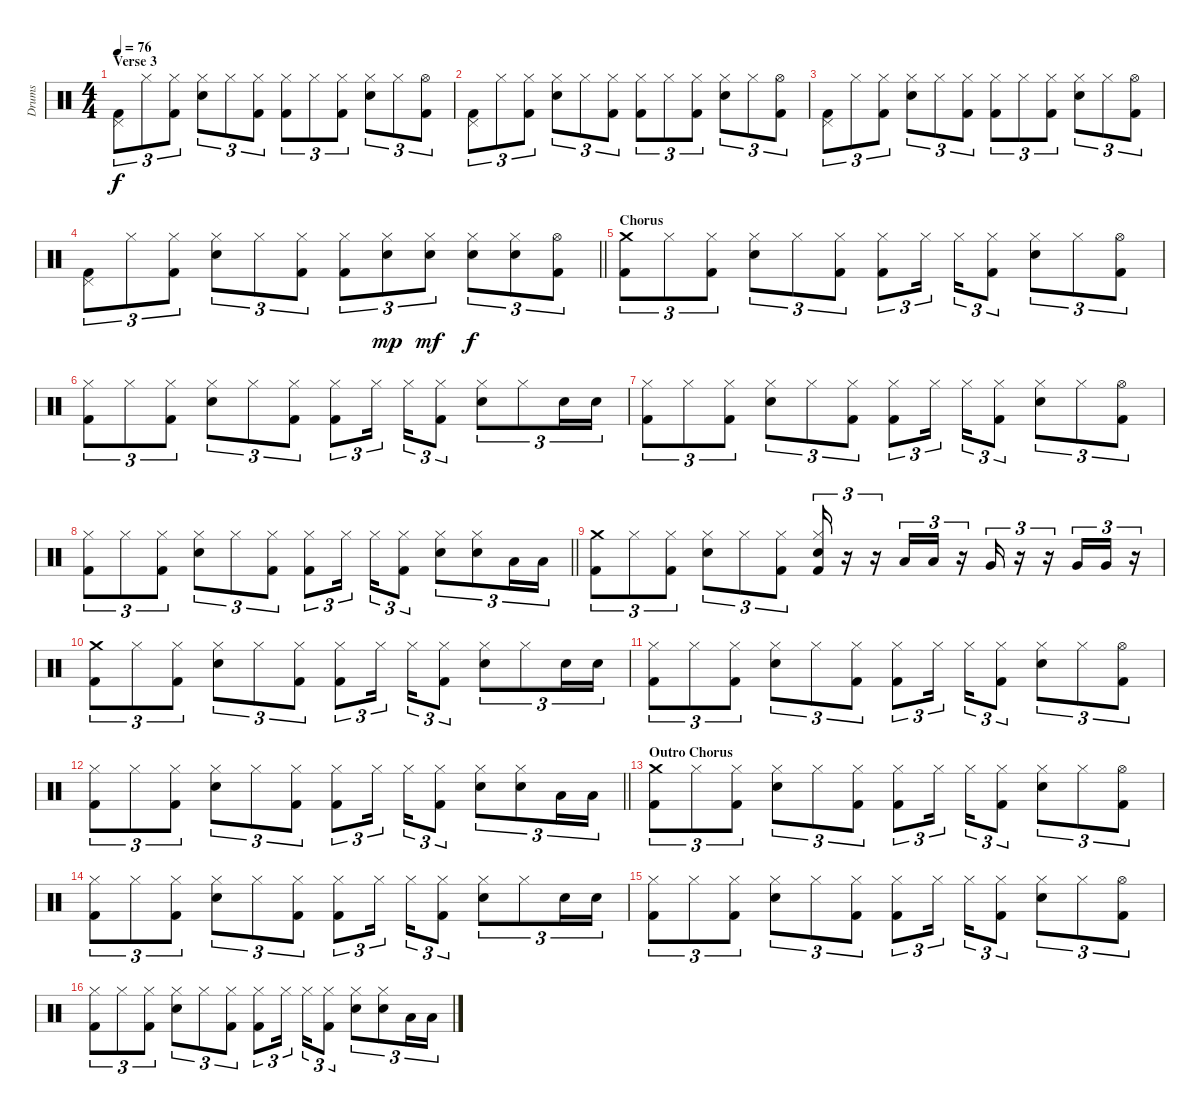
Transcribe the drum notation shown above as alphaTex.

\track ("Drums" "Drums") {instrument percussion}
\staff {score}
\articulation defaults
\ts (4 4)
\section ("" "Verse 3")
\tempo 76
\clef neutral
\ks c
("Pedal Hi-Hat (hit)" "Kick (hit) 2").8{tu (3 2) dy f} "Hi-Hat (closed)".8{tu (3 2)} ("Hi-Hat (closed)" "Kick (hit) 2").8{tu (3 2)} ("Hi-Hat (closed)" "Snare (hit) 2").8{tu (3 2)} "Hi-Hat (closed)".8{tu (3 2)} ("Hi-Hat (closed)" "Kick (hit) 2").8{tu (3 2)} ("Hi-Hat (closed)" "Kick (hit) 2").8{tu (3 2)} "Hi-Hat (closed)".8{tu (3 2)} ("Hi-Hat (closed)" "Kick (hit) 2").8{tu (3 2)} ("Hi-Hat (closed)" "Snare (hit) 2").8{tu (3 2)} "Hi-Hat (closed)".8{tu (3 2)} ("Hi-Hat (open)" "Kick (hit) 2").8{tu (3 2)} |
("Pedal Hi-Hat (hit)" "Kick (hit) 2").8{tu (3 2)} "Hi-Hat (closed)".8{tu (3 2)} ("Hi-Hat (closed)" "Kick (hit) 2").8{tu (3 2)} ("Hi-Hat (closed)" "Snare (hit) 2").8{tu (3 2)} "Hi-Hat (closed)".8{tu (3 2)} ("Hi-Hat (closed)" "Kick (hit) 2").8{tu (3 2)} ("Hi-Hat (closed)" "Kick (hit) 2").8{tu (3 2)} "Hi-Hat (closed)".8{tu (3 2)} ("Hi-Hat (closed)" "Kick (hit) 2").8{tu (3 2)} ("Hi-Hat (closed)" "Snare (hit) 2").8{tu (3 2)} "Hi-Hat (closed)".8{tu (3 2)} ("Hi-Hat (open)" "Kick (hit) 2").8{tu (3 2)} |
("Pedal Hi-Hat (hit)" "Kick (hit) 2").8{tu (3 2)} "Hi-Hat (closed)".8{tu (3 2)} ("Hi-Hat (closed)" "Kick (hit) 2").8{tu (3 2)} ("Hi-Hat (closed)" "Snare (hit) 2").8{tu (3 2)} "Hi-Hat (closed)".8{tu (3 2)} ("Hi-Hat (closed)" "Kick (hit) 2").8{tu (3 2)} ("Hi-Hat (closed)" "Kick (hit) 2").8{tu (3 2)} "Hi-Hat (closed)".8{tu (3 2)} ("Hi-Hat (closed)" "Kick (hit) 2").8{tu (3 2)} ("Hi-Hat (closed)" "Snare (hit) 2").8{tu (3 2)} "Hi-Hat (closed)".8{tu (3 2)} ("Hi-Hat (open)" "Kick (hit) 2").8{tu (3 2)} |
\barLineRight lightlight
("Pedal Hi-Hat (hit)" "Kick (hit) 2").8{tu (3 2)} "Hi-Hat (closed)".8{tu (3 2)} ("Hi-Hat (closed)" "Kick (hit) 2").8{tu (3 2)} ("Hi-Hat (closed)" "Snare (hit) 2").8{tu (3 2)} "Hi-Hat (closed)".8{tu (3 2)} ("Hi-Hat (closed)" "Kick (hit) 2").8{tu (3 2)} ("Hi-Hat (closed)" "Kick (hit) 2").8{tu (3 2)} ("Hi-Hat (closed)" "Snare (hit) 2").8{tu (3 2) dy mp} ("Hi-Hat (closed)" "Snare (hit) 2").8{tu (3 2) dy mf} ("Hi-Hat (closed)" "Snare (hit) 2").8{tu (3 2) dy f} ("Hi-Hat (closed)" "Snare (hit) 2").8{tu (3 2)} ("Hi-Hat (open)" "Kick (hit) 2").8{tu (3 2)} |
\section ("" "Chorus")
("Crash medium (hit)" "Kick (hit) 2").8{tu (3 2)} "Hi-Hat (closed)".8{tu (3 2)} ("Hi-Hat (closed)" "Kick (hit) 2").8{tu (3 2)} ("Hi-Hat (closed)" "Snare (hit) 2").8{tu (3 2)} "Hi-Hat (closed)".8{tu (3 2)} ("Hi-Hat (closed)" "Kick (hit) 2").8{tu (3 2)} ("Hi-Hat (closed)" "Kick (hit) 2").8{tu (3 2)} "Hi-Hat (closed)".16{tu (3 2) beam splitsecondary} "Hi-Hat (closed)".16{tu (3 2)} ("Hi-Hat (closed)" "Kick (hit) 2").8{tu (3 2)} ("Hi-Hat (closed)" "Snare (hit) 2").8{tu (3 2)} "Hi-Hat (closed)".8{tu (3 2)} ("Hi-Hat (open)" "Kick (hit) 2").8{tu (3 2)} |
("Hi-Hat (closed)" "Kick (hit) 2").8{tu (3 2)} "Hi-Hat (closed)".8{tu (3 2)} ("Hi-Hat (closed)" "Kick (hit) 2").8{tu (3 2)} ("Hi-Hat (closed)" "Snare (hit) 2").8{tu (3 2)} "Hi-Hat (closed)".8{tu (3 2)} ("Hi-Hat (closed)" "Kick (hit) 2").8{tu (3 2)} ("Hi-Hat (closed)" "Kick (hit) 2").8{tu (3 2)} "Hi-Hat (closed)".16{tu (3 2) beam splitsecondary} "Hi-Hat (closed)".16{tu (3 2)} ("Hi-Hat (closed)" "Kick (hit) 2").8{tu (3 2)} ("Hi-Hat (closed)" "Snare (hit) 2").8{tu (3 2)} "Hi-Hat (closed)".8{tu (3 2)} "Snare (hit) 2".16{tu (3 2)} "Snare (hit) 2".16{tu (3 2)} |
("Hi-Hat (closed)" "Kick (hit) 2").8{tu (3 2)} "Hi-Hat (closed)".8{tu (3 2)} ("Hi-Hat (closed)" "Kick (hit) 2").8{tu (3 2)} ("Hi-Hat (closed)" "Snare (hit) 2").8{tu (3 2)} "Hi-Hat (closed)".8{tu (3 2)} ("Hi-Hat (closed)" "Kick (hit) 2").8{tu (3 2)} ("Hi-Hat (closed)" "Kick (hit) 2").8{tu (3 2)} "Hi-Hat (closed)".16{tu (3 2) beam splitsecondary} "Hi-Hat (closed)".16{tu (3 2)} ("Hi-Hat (closed)" "Kick (hit) 2").8{tu (3 2)} ("Hi-Hat (closed)" "Snare (hit) 2").8{tu (3 2)} "Hi-Hat (closed)".8{tu (3 2)} ("Hi-Hat (open)" "Kick (hit) 2").8{tu (3 2)} |
\barLineRight lightlight
("Hi-Hat (closed)" "Kick (hit) 2").8{tu (3 2)} "Hi-Hat (closed)".8{tu (3 2)} ("Hi-Hat (closed)" "Kick (hit) 2").8{tu (3 2)} ("Hi-Hat (closed)" "Snare (hit) 2").8{tu (3 2)} "Hi-Hat (closed)".8{tu (3 2)} ("Hi-Hat (closed)" "Kick (hit) 2").8{tu (3 2)} ("Hi-Hat (closed)" "Kick (hit) 2").8{tu (3 2)} "Hi-Hat (closed)".16{tu (3 2) beam splitsecondary} "Hi-Hat (closed)".16{tu (3 2)} ("Hi-Hat (closed)" "Kick (hit) 2").8{tu (3 2)} ("Hi-Hat (closed)" "Snare (hit) 2").8{tu (3 2)} ("Hi-Hat (closed)" "Snare (hit) 2").8{tu (3 2)} "Low Tom (hit)".16{tu (3 2)} "Low Tom (hit)".16{tu (3 2)} |
("Crash medium (hit)" "Kick (hit) 2").8{tu (3 2)} "Hi-Hat (closed)".8{tu (3 2)} ("Hi-Hat (closed)" "Kick (hit) 2").8{tu (3 2)} ("Hi-Hat (closed)" "Snare (hit) 2").8{tu (3 2)} "Hi-Hat (closed)".8{tu (3 2)} ("Hi-Hat (closed)" "Kick (hit) 2").8{tu (3 2)} ("Hi-Hat (closed)" "Snare (hit) 2" "Kick (hit) 2").16{tu (3 2)} r.16{tu (3 2)} r.16{tu (3 2)} "Low Tom (hit)".16{tu (3 2)} "Low Tom (hit)".16{tu (3 2)} r.16{tu (3 2)} "Very Low Tom (hit)".16{tu (3 2)} r.16{tu (3 2)} r.16{tu (3 2)} "Very Low Tom (hit)".16{tu (3 2)} "Very Low Tom (hit)".16{tu (3 2)} r.16{tu (3 2)} |
("Crash medium (hit)" "Kick (hit) 2").8{tu (3 2)} "Hi-Hat (closed)".8{tu (3 2)} ("Hi-Hat (closed)" "Kick (hit) 2").8{tu (3 2)} ("Hi-Hat (closed)" "Snare (hit) 2").8{tu (3 2)} "Hi-Hat (closed)".8{tu (3 2)} ("Hi-Hat (closed)" "Kick (hit) 2").8{tu (3 2)} ("Hi-Hat (closed)" "Kick (hit) 2").8{tu (3 2)} "Hi-Hat (closed)".16{tu (3 2) beam splitsecondary} "Hi-Hat (closed)".16{tu (3 2)} ("Hi-Hat (closed)" "Kick (hit) 2").8{tu (3 2)} ("Hi-Hat (closed)" "Snare (hit) 2").8{tu (3 2)} "Hi-Hat (closed)".8{tu (3 2)} "Snare (hit) 2".16{tu (3 2)} "Snare (hit) 2".16{tu (3 2)} |
("Hi-Hat (closed)" "Kick (hit) 2").8{tu (3 2)} "Hi-Hat (closed)".8{tu (3 2)} ("Hi-Hat (closed)" "Kick (hit) 2").8{tu (3 2)} ("Hi-Hat (closed)" "Snare (hit) 2").8{tu (3 2)} "Hi-Hat (closed)".8{tu (3 2)} ("Hi-Hat (closed)" "Kick (hit) 2").8{tu (3 2)} ("Hi-Hat (closed)" "Kick (hit) 2").8{tu (3 2)} "Hi-Hat (closed)".16{tu (3 2) beam splitsecondary} "Hi-Hat (closed)".16{tu (3 2)} ("Hi-Hat (closed)" "Kick (hit) 2").8{tu (3 2)} ("Hi-Hat (closed)" "Snare (hit) 2").8{tu (3 2)} "Hi-Hat (closed)".8{tu (3 2)} ("Hi-Hat (open)" "Kick (hit) 2").8{tu (3 2)} |
\barLineRight lightlight
("Hi-Hat (closed)" "Kick (hit) 2").8{tu (3 2)} "Hi-Hat (closed)".8{tu (3 2)} ("Hi-Hat (closed)" "Kick (hit) 2").8{tu (3 2)} ("Hi-Hat (closed)" "Snare (hit) 2").8{tu (3 2)} "Hi-Hat (closed)".8{tu (3 2)} ("Hi-Hat (closed)" "Kick (hit) 2").8{tu (3 2)} ("Hi-Hat (closed)" "Kick (hit) 2").8{tu (3 2)} "Hi-Hat (closed)".16{tu (3 2) beam splitsecondary} "Hi-Hat (closed)".16{tu (3 2)} ("Hi-Hat (closed)" "Kick (hit) 2").8{tu (3 2)} ("Hi-Hat (closed)" "Snare (hit) 2").8{tu (3 2)} ("Hi-Hat (closed)" "Snare (hit) 2").8{tu (3 2)} "Low Tom (hit)".16{tu (3 2)} "Low Tom (hit)".16{tu (3 2)} |
\section ("" "Outro Chorus")
("Crash medium (hit)" "Kick (hit) 2").8{tu (3 2)} "Hi-Hat (closed)".8{tu (3 2)} ("Hi-Hat (closed)" "Kick (hit) 2").8{tu (3 2)} ("Hi-Hat (closed)" "Snare (hit) 2").8{tu (3 2)} "Hi-Hat (closed)".8{tu (3 2)} ("Hi-Hat (closed)" "Kick (hit) 2").8{tu (3 2)} ("Hi-Hat (closed)" "Kick (hit) 2").8{tu (3 2)} "Hi-Hat (closed)".16{tu (3 2) beam splitsecondary} "Hi-Hat (closed)".16{tu (3 2)} ("Hi-Hat (closed)" "Kick (hit) 2").8{tu (3 2)} ("Hi-Hat (closed)" "Snare (hit) 2").8{tu (3 2)} "Hi-Hat (closed)".8{tu (3 2)} ("Hi-Hat (open)" "Kick (hit) 2").8{tu (3 2)} |
("Hi-Hat (closed)" "Kick (hit) 2").8{tu (3 2)} "Hi-Hat (closed)".8{tu (3 2)} ("Hi-Hat (closed)" "Kick (hit) 2").8{tu (3 2)} ("Hi-Hat (closed)" "Snare (hit) 2").8{tu (3 2)} "Hi-Hat (closed)".8{tu (3 2)} ("Hi-Hat (closed)" "Kick (hit) 2").8{tu (3 2)} ("Hi-Hat (closed)" "Kick (hit) 2").8{tu (3 2)} "Hi-Hat (closed)".16{tu (3 2) beam splitsecondary} "Hi-Hat (closed)".16{tu (3 2)} ("Hi-Hat (closed)" "Kick (hit) 2").8{tu (3 2)} ("Hi-Hat (closed)" "Snare (hit) 2").8{tu (3 2)} "Hi-Hat (closed)".8{tu (3 2)} "Snare (hit) 2".16{tu (3 2)} "Snare (hit) 2".16{tu (3 2)} |
("Hi-Hat (closed)" "Kick (hit) 2").8{tu (3 2)} "Hi-Hat (closed)".8{tu (3 2)} ("Hi-Hat (closed)" "Kick (hit) 2").8{tu (3 2)} ("Hi-Hat (closed)" "Snare (hit) 2").8{tu (3 2)} "Hi-Hat (closed)".8{tu (3 2)} ("Hi-Hat (closed)" "Kick (hit) 2").8{tu (3 2)} ("Hi-Hat (closed)" "Kick (hit) 2").8{tu (3 2)} "Hi-Hat (closed)".16{tu (3 2) beam splitsecondary} "Hi-Hat (closed)".16{tu (3 2)} ("Hi-Hat (closed)" "Kick (hit) 2").8{tu (3 2)} ("Hi-Hat (closed)" "Snare (hit) 2").8{tu (3 2)} "Hi-Hat (closed)".8{tu (3 2)} ("Hi-Hat (open)" "Kick (hit) 2").8{tu (3 2)} |
("Hi-Hat (closed)" "Kick (hit) 2").8{tu (3 2)} "Hi-Hat (closed)".8{tu (3 2)} ("Hi-Hat (closed)" "Kick (hit) 2").8{tu (3 2)} ("Hi-Hat (closed)" "Snare (hit) 2").8{tu (3 2)} "Hi-Hat (closed)".8{tu (3 2)} ("Hi-Hat (closed)" "Kick (hit) 2").8{tu (3 2)} ("Hi-Hat (closed)" "Kick (hit) 2").8{tu (3 2)} "Hi-Hat (closed)".16{tu (3 2) beam splitsecondary} "Hi-Hat (closed)".16{tu (3 2)} ("Hi-Hat (closed)" "Kick (hit) 2").8{tu (3 2)} ("Hi-Hat (closed)" "Snare (hit) 2").8{tu (3 2)} ("Hi-Hat (closed)" "Snare (hit) 2").8{tu (3 2)} "Low Tom (hit)".16{tu (3 2)} "Low Tom (hit)".16{tu (3 2)}
